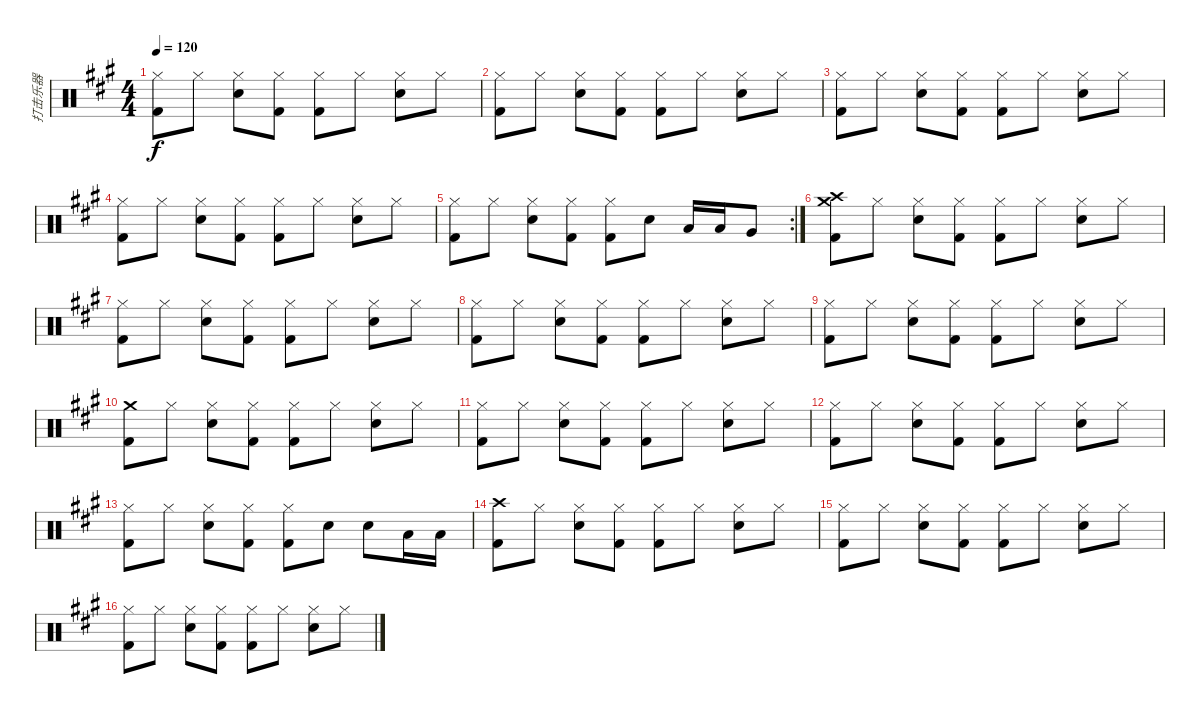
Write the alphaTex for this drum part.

\track ("打击乐器" "打击乐器") {instrument percussion}
\staff {score}
\articulation defaults
\ts (4 4)
\tempo 120
\clef neutral
\ks a
("Hi-Hat (closed)" "Kick (hit) 2").8{dy f} "Hi-Hat (closed)".8 ("Hi-Hat (closed)" "Electric Snare (hit)").8 ("Hi-Hat (closed)" "Kick (hit) 2").8 ("Hi-Hat (closed)" "Kick (hit) 2").8 "Hi-Hat (closed)".8 ("Hi-Hat (closed)" "Electric Snare (hit)").8 "Hi-Hat (closed)".8 |
("Hi-Hat (closed)" "Kick (hit) 2").8 "Hi-Hat (closed)".8 ("Hi-Hat (closed)" "Electric Snare (hit)").8 ("Hi-Hat (closed)" "Kick (hit) 2").8 ("Hi-Hat (closed)" "Kick (hit) 2").8 "Hi-Hat (closed)".8 ("Hi-Hat (closed)" "Electric Snare (hit)").8 "Hi-Hat (closed)".8 |
("Hi-Hat (closed)" "Kick (hit) 2").8 "Hi-Hat (closed)".8 ("Hi-Hat (closed)" "Electric Snare (hit)").8 ("Hi-Hat (closed)" "Kick (hit) 2").8 ("Hi-Hat (closed)" "Kick (hit) 2").8 "Hi-Hat (closed)".8 ("Hi-Hat (closed)" "Electric Snare (hit)").8 "Hi-Hat (closed)".8 |
("Hi-Hat (closed)" "Kick (hit) 2").8 "Hi-Hat (closed)".8 ("Hi-Hat (closed)" "Electric Snare (hit)").8 ("Hi-Hat (closed)" "Kick (hit) 2").8 ("Hi-Hat (closed)" "Kick (hit) 2").8 "Hi-Hat (closed)".8 ("Hi-Hat (closed)" "Electric Snare (hit)").8 "Hi-Hat (closed)".8 |
\rc 2
("Hi-Hat (closed)" "Kick (hit) 2").8 "Hi-Hat (closed)".8 ("Hi-Hat (closed)" "Electric Snare (hit)").8 ("Hi-Hat (closed)" "Kick (hit) 2").8 ("Hi-Hat (closed)" "Kick (hit) 2").8 "Electric Snare (hit)".8 "Low Tom (hit)".16 "Low Tom (hit)".16 "Very Low Tom (hit)".8 |
("Crash high (hit)" "Crash medium (hit)" "Kick (hit) 2").8 "Hi-Hat (closed)".8 ("Hi-Hat (closed)" "Electric Snare (hit)").8 ("Hi-Hat (closed)" "Kick (hit) 2").8 ("Hi-Hat (closed)" "Kick (hit) 2").8 "Hi-Hat (closed)".8 ("Hi-Hat (closed)" "Electric Snare (hit)").8 "Hi-Hat (closed)".8 |
("Hi-Hat (closed)" "Kick (hit) 2").8 "Hi-Hat (closed)".8 ("Hi-Hat (closed)" "Electric Snare (hit)").8 ("Hi-Hat (closed)" "Kick (hit) 2").8 ("Hi-Hat (closed)" "Kick (hit) 2").8 "Hi-Hat (closed)".8 ("Hi-Hat (closed)" "Electric Snare (hit)").8 "Hi-Hat (closed)".8 |
("Hi-Hat (closed)" "Kick (hit) 2").8 "Hi-Hat (closed)".8 ("Hi-Hat (closed)" "Electric Snare (hit)").8 ("Hi-Hat (closed)" "Kick (hit) 2").8 ("Hi-Hat (closed)" "Kick (hit) 2").8 "Hi-Hat (closed)".8 ("Hi-Hat (closed)" "Electric Snare (hit)").8 "Hi-Hat (closed)".8 |
("Hi-Hat (closed)" "Kick (hit) 2").8 "Hi-Hat (closed)".8 ("Hi-Hat (closed)" "Electric Snare (hit)").8 ("Hi-Hat (closed)" "Kick (hit) 2").8 ("Hi-Hat (closed)" "Kick (hit) 2").8 "Hi-Hat (closed)".8 ("Hi-Hat (closed)" "Electric Snare (hit)").8 "Hi-Hat (closed)".8 |
("Crash medium (hit)" "Kick (hit) 2").8 "Hi-Hat (closed)".8 ("Hi-Hat (closed)" "Electric Snare (hit)").8 ("Hi-Hat (closed)" "Kick (hit) 2").8 ("Hi-Hat (closed)" "Kick (hit) 2").8 "Hi-Hat (closed)".8 ("Hi-Hat (closed)" "Electric Snare (hit)").8 "Hi-Hat (closed)".8 |
("Hi-Hat (closed)" "Kick (hit) 2").8 "Hi-Hat (closed)".8 ("Hi-Hat (closed)" "Electric Snare (hit)").8 ("Hi-Hat (closed)" "Kick (hit) 2").8 ("Hi-Hat (closed)" "Kick (hit) 2").8 "Hi-Hat (closed)".8 ("Hi-Hat (closed)" "Electric Snare (hit)").8 "Hi-Hat (closed)".8 |
("Hi-Hat (closed)" "Kick (hit) 2").8 "Hi-Hat (closed)".8 ("Hi-Hat (closed)" "Electric Snare (hit)").8 ("Hi-Hat (closed)" "Kick (hit) 2").8 ("Hi-Hat (closed)" "Kick (hit) 2").8 "Hi-Hat (closed)".8 ("Hi-Hat (closed)" "Electric Snare (hit)").8 "Hi-Hat (closed)".8 |
("Hi-Hat (closed)" "Kick (hit) 2").8 "Hi-Hat (closed)".8 ("Hi-Hat (closed)" "Electric Snare (hit)").8 ("Hi-Hat (closed)" "Kick (hit) 2").8 ("Hi-Hat (closed)" "Kick (hit) 2").8 "Electric Snare (hit)".8 "Electric Snare (hit)".8 "Low Tom (hit)".16 "Low Tom (hit)".16 |
("Crash high (hit)" "Kick (hit) 2").8 "Hi-Hat (closed)".8 ("Hi-Hat (closed)" "Electric Snare (hit)").8 ("Hi-Hat (closed)" "Kick (hit) 2").8 ("Hi-Hat (closed)" "Kick (hit) 2").8 "Hi-Hat (closed)".8 ("Hi-Hat (closed)" "Electric Snare (hit)").8 "Hi-Hat (closed)".8 |
("Hi-Hat (closed)" "Kick (hit) 2").8 "Hi-Hat (closed)".8 ("Hi-Hat (closed)" "Electric Snare (hit)").8 ("Hi-Hat (closed)" "Kick (hit) 2").8 ("Hi-Hat (closed)" "Kick (hit) 2").8 "Hi-Hat (closed)".8 ("Hi-Hat (closed)" "Electric Snare (hit)").8 "Hi-Hat (closed)".8 |
("Hi-Hat (closed)" "Kick (hit) 2").8 "Hi-Hat (closed)".8 ("Hi-Hat (closed)" "Electric Snare (hit)").8 ("Hi-Hat (closed)" "Kick (hit) 2").8 ("Hi-Hat (closed)" "Kick (hit) 2").8 "Hi-Hat (closed)".8 ("Hi-Hat (closed)" "Electric Snare (hit)").8 "Hi-Hat (closed)".8
